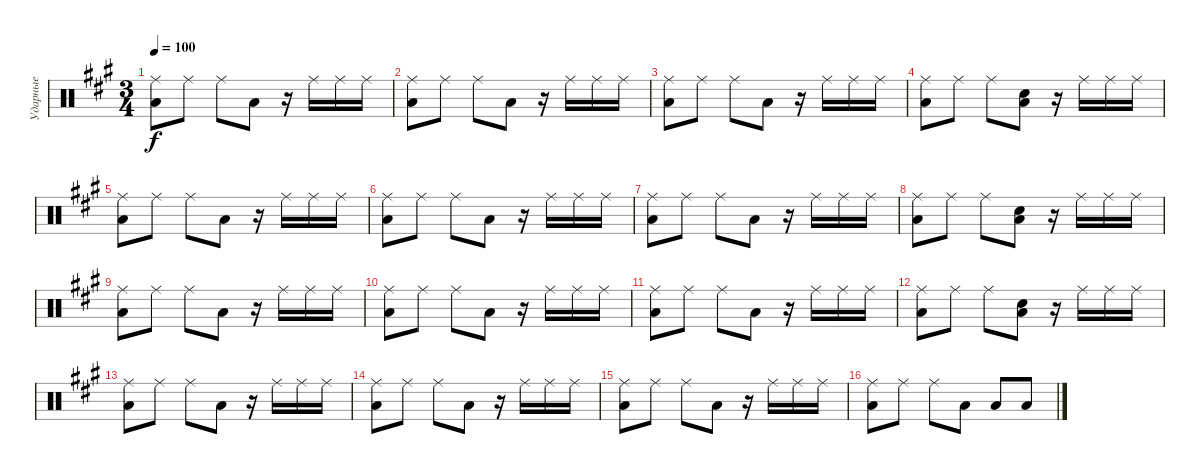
\track ("Ударные" "Ударные") {instrument percussion}
\staff {score}
\articulation defaults
\ts (3 4)
\tempo 100
\clef neutral
\ks f#minor
("Low Tom (hit)" "Ride (middle)").8{dy f} "Ride (middle)".8 "Ride (middle)".8 "Low Tom (hit)".8 r.16 "Ride (middle)".16 "Ride (middle)".16 "Ride (middle)".16 |
("Low Tom (hit)" "Ride (middle)").8 "Ride (middle)".8 "Ride (middle)".8 "Low Tom (hit)".8 r.16 "Ride (middle)".16 "Ride (middle)".16 "Ride (middle)".16 |
("Low Tom (hit)" "Ride (middle)").8 "Ride (middle)".8 "Ride (middle)".8 "Low Tom (hit)".8 r.16 "Ride (middle)".16 "Ride (middle)".16 "Ride (middle)".16 |
("Low Tom (hit)" "Ride (middle)").8 "Ride (middle)".8 "Ride (middle)".8 ("Low Tom (hit)" "Snare (hit) 2").8 r.16 "Ride (middle)".16 "Ride (middle)".16 "Ride (middle)".16 |
("Low Tom (hit)" "Ride (middle)").8 "Ride (middle)".8 "Ride (middle)".8 "Low Tom (hit)".8 r.16 "Ride (middle)".16 "Ride (middle)".16 "Ride (middle)".16 |
("Low Tom (hit)" "Ride (middle)").8 "Ride (middle)".8 "Ride (middle)".8 "Low Tom (hit)".8 r.16 "Ride (middle)".16 "Ride (middle)".16 "Ride (middle)".16 |
("Low Tom (hit)" "Ride (middle)").8 "Ride (middle)".8 "Ride (middle)".8 "Low Tom (hit)".8 r.16 "Ride (middle)".16 "Ride (middle)".16 "Ride (middle)".16 |
("Low Tom (hit)" "Ride (middle)").8 "Ride (middle)".8 "Ride (middle)".8 ("Low Tom (hit)" "Snare (hit) 2").8 r.16 "Ride (middle)".16 "Ride (middle)".16 "Ride (middle)".16 |
("Low Tom (hit)" "Ride (middle)").8 "Ride (middle)".8 "Ride (middle)".8 "Low Tom (hit)".8 r.16 "Ride (middle)".16 "Ride (middle)".16 "Ride (middle)".16 |
("Low Tom (hit)" "Ride (middle)").8 "Ride (middle)".8 "Ride (middle)".8 "Low Tom (hit)".8 r.16 "Ride (middle)".16 "Ride (middle)".16 "Ride (middle)".16 |
("Low Tom (hit)" "Ride (middle)").8 "Ride (middle)".8 "Ride (middle)".8 "Low Tom (hit)".8 r.16 "Ride (middle)".16 "Ride (middle)".16 "Ride (middle)".16 |
("Low Tom (hit)" "Ride (middle)").8 "Ride (middle)".8 "Ride (middle)".8 ("Low Tom (hit)" "Snare (hit) 2").8 r.16 "Ride (middle)".16 "Ride (middle)".16 "Ride (middle)".16 |
("Low Tom (hit)" "Ride (middle)").8 "Ride (middle)".8 "Ride (middle)".8 "Low Tom (hit)".8 r.16 "Ride (middle)".16 "Ride (middle)".16 "Ride (middle)".16 |
("Low Tom (hit)" "Ride (middle)").8 "Ride (middle)".8 "Ride (middle)".8 "Low Tom (hit)".8 r.16 "Ride (middle)".16 "Ride (middle)".16 "Ride (middle)".16 |
("Low Tom (hit)" "Ride (middle)").8 "Ride (middle)".8 "Ride (middle)".8 "Low Tom (hit)".8 r.16 "Ride (middle)".16 "Ride (middle)".16 "Ride (middle)".16 |
("Low Tom (hit)" "Ride (middle)").8 "Ride (middle)".8 "Ride (middle)".8 "Low Tom (hit)".8{volume 2} "Low Floor Tom (hit)".8 "Low Floor Tom (hit)".8
